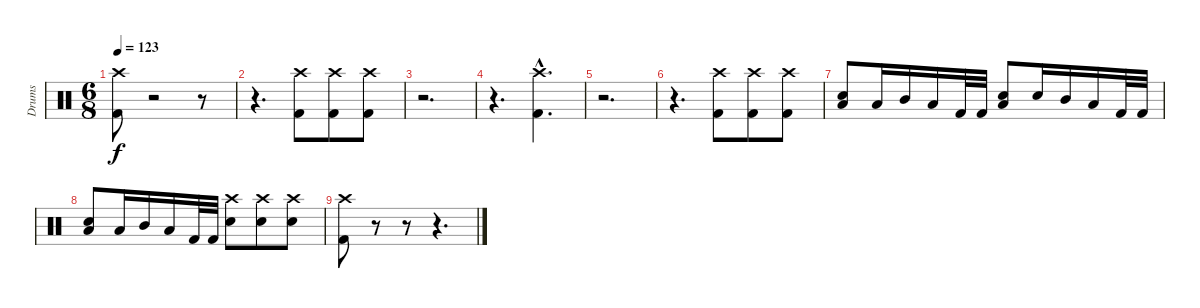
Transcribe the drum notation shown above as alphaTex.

\track ("Drums" "Drums") {instrument percussion}
\staff {score}
\articulation defaults
\ts (6 8)
\tempo 123
\clef neutral
\ks c
("Crash high (hit)" "Kick (hit) 2").8{dy f} r.2 r.8 |
r.4{d} ("Crash high (hit)" "Kick (hit) 2").8 ("Crash high (hit)" "Kick (hit) 2").8 ("Crash high (hit)" "Kick (hit) 2").8 |
r.2{d} |
r.4{d} ("Crash high (hit)"{hac} "Kick (hit) 2"{hac}).4{d} |
r.2{d} |
r.4{d} ("Crash high (hit)" "Kick (hit) 2").8 ("Crash high (hit)" "Kick (hit) 2").8 ("Crash high (hit)" "Kick (hit) 2").8 |
("Electric Snare (hit)" "Low Tom (hit)").8 "Low Floor Tom (hit)".16 "Mid Tom (hit)".16 "Low Floor Tom (hit)".16 "Kick (hit) 2".32 "Kick (hit) 2".32 ("Electric Snare (hit)" "Low Tom (hit)").8 "Electric Snare (hit)".16 "Mid Tom (hit)".16 "Low Floor Tom (hit)".16 "Kick (hit) 2".32 "Kick (hit) 2".32 |
("Electric Snare (hit)" "Low Tom (hit)").8 "Low Floor Tom (hit)".16 "Mid Tom (hit)".16 "Low Floor Tom (hit)".16 "Kick (hit) 2".32 "Kick (hit) 2".32 ("Crash high (hit)" "Electric Snare (hit)").8 ("Crash high (hit)" "Electric Snare (hit)").8 ("Crash high (hit)" "Electric Snare (hit)").8 |
("Crash high (hit)" "Kick (hit) 2").8 r.8 r.8 r.4{d}
